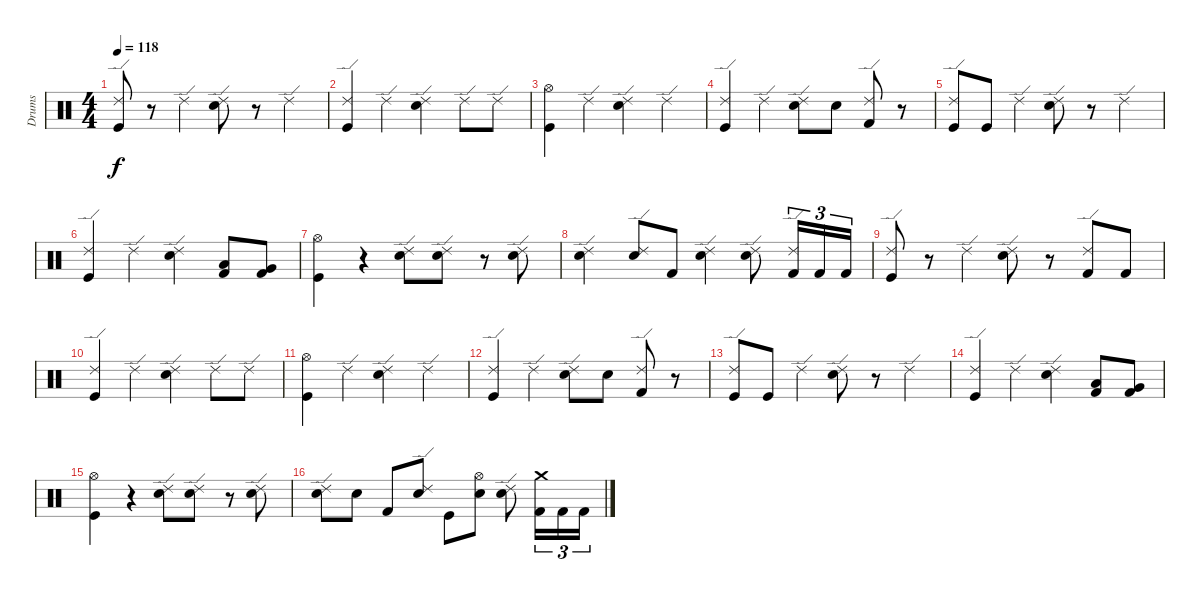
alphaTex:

\track ("Drums" "Drums") {instrument percussion}
\staff {score}
\articulation defaults
\ts (4 4)
\tempo 118
\clef neutral
\ks c
("Ride (edge) 2" "Kick (hit)").8{dy f} r.8 "Ride (edge) 2".4 ("Ride (edge) 2" "Snare (hit) 2").8 r.8 "Ride (edge) 2".4 |
("Ride (edge) 2" "Kick (hit)").4 "Ride (edge) 2".4 ("Ride (edge) 2" "Snare (hit) 2").4 "Ride (edge) 2".8 "Ride (edge) 2".8 |
("Hi-Hat (open)" "Kick (hit)").4 "Ride (edge) 2".4 ("Ride (edge) 2" "Snare (hit) 2").4 "Ride (edge) 2".4 |
("Ride (edge) 2" "Kick (hit)").4 "Ride (edge) 2".4 ("Ride (edge) 2" "Snare (hit) 2").8 "Snare (hit) 2".8 ("Ride (edge) 2" "Kick (hit) 2").8 r.8 |
("Ride (edge) 2" "Kick (hit)").8 "Kick (hit)".8 "Ride (edge) 2".4 ("Ride (edge) 2" "Snare (hit) 2").8 r.8 "Ride (edge) 2".4 |
("Ride (edge) 2" "Kick (hit)").4 "Ride (edge) 2".4 ("Ride (edge) 2" "Snare (hit) 2").4 ("Kick (hit) 2" "Low Tom (hit)").8 ("Kick (hit) 2" "Very Low Tom (hit)").8 |
("Hi-Hat (open)" "Kick (hit)").4 r.4 ("Ride (edge) 2" "Snare (hit) 2").8 ("Ride (edge) 2" "Snare (hit) 2").8 r.8 ("Ride (edge) 2" "Snare (hit) 2").8 |
("Ride (edge) 2" "Snare (hit) 2").4 ("Ride (edge) 2" "Snare (hit) 2").8 "Kick (hit) 2".8 ("Ride (edge) 2" "Snare (hit) 2").4 ("Ride (edge) 2" "Snare (hit) 2").8 ("Ride (edge) 2" "Kick (hit) 2").16{tu (3 2)} "Kick (hit) 2".16{tu (3 2)} "Kick (hit) 2".16{tu (3 2)} |
("Ride (edge) 2" "Kick (hit)").8 r.8 "Ride (edge) 2".4 ("Ride (edge) 2" "Snare (hit) 2").8 r.8 ("Ride (edge) 2" "Kick (hit) 2").8 "Kick (hit) 2".8 |
("Ride (edge) 2" "Kick (hit)").4 "Ride (edge) 2".4 ("Ride (edge) 2" "Snare (hit) 2").4 "Ride (edge) 2".8 "Ride (edge) 2".8 |
("Hi-Hat (open)" "Kick (hit)").4 "Ride (edge) 2".4 ("Ride (edge) 2" "Snare (hit) 2").4 "Ride (edge) 2".4 |
("Ride (edge) 2" "Kick (hit)").4 "Ride (edge) 2".4 ("Ride (edge) 2" "Snare (hit) 2").8 "Snare (hit) 2".8 ("Ride (edge) 2" "Kick (hit) 2").8 r.8 |
("Ride (edge) 2" "Kick (hit)").8 "Kick (hit)".8 "Ride (edge) 2".4 ("Ride (edge) 2" "Snare (hit) 2").8 r.8 "Ride (edge) 2".4 |
("Ride (edge) 2" "Kick (hit)").4 "Ride (edge) 2".4 ("Ride (edge) 2" "Snare (hit) 2").4 ("Kick (hit) 2" "Low Tom (hit)").8 ("Kick (hit) 2" "Very Low Tom (hit)").8 |
("Hi-Hat (open)" "Kick (hit)").4 r.4 ("Ride (edge) 2" "Snare (hit) 2").8 ("Ride (edge) 2" "Snare (hit) 2").8 r.8 ("Ride (edge) 2" "Snare (hit) 2").8 |
("Ride (edge) 2" "Snare (hit) 2").8 "Snare (hit) 2".8 "Kick (hit) 2".8 ("Ride (edge) 2" "Snare (hit) 2").8 "Kick (hit)".8 ("Hi-Hat (open)" "Snare (hit) 2").8 ("Ride (edge) 2" "Snare (hit) 2").8 ("Crash medium (hit)" "Kick (hit) 2").16{tu (3 2)} "Kick (hit) 2".16{tu (3 2)} "Kick (hit) 2".16{tu (3 2)}
